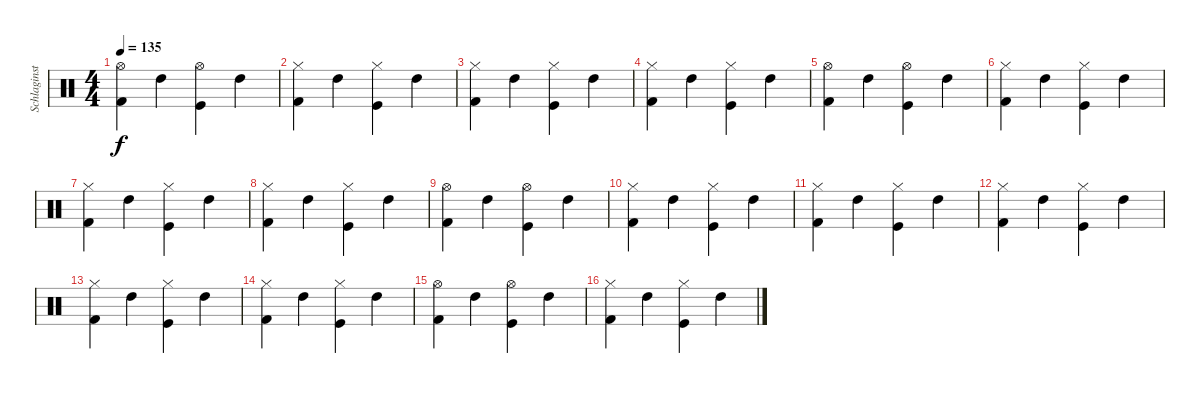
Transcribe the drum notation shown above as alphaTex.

\track ("Schlaginstrumente - Auswahl" "Schlaginst") {instrument percussion}
\staff {score}
\articulation defaults
\ts (4 4)
\tempo 135
\clef neutral
\ks c
("Kick (hit) 2" "Hi-Hat (open)").4{dy f} "High Tom (hit)".4 ("Kick (hit)" "Hi-Hat (open)").4 "High Tom (hit)".4 |
("Kick (hit) 2" "Hi-Hat (closed)").4 "High Tom (hit)".4 ("Kick (hit)" "Hi-Hat (closed)").4 "High Tom (hit)".4 |
("Kick (hit) 2" "Hi-Hat (closed)").4 "High Tom (hit)".4 ("Kick (hit)" "Hi-Hat (closed)").4 "High Tom (hit)".4 |
("Kick (hit) 2" "Hi-Hat (closed)").4 "High Tom (hit)".4 ("Kick (hit)" "Hi-Hat (closed)").4 "High Tom (hit)".4 |
("Kick (hit) 2" "Hi-Hat (open)").4 "High Tom (hit)".4 ("Kick (hit)" "Hi-Hat (open)").4 "High Tom (hit)".4 |
("Kick (hit) 2" "Hi-Hat (closed)").4 "High Tom (hit)".4 ("Kick (hit)" "Hi-Hat (closed)").4 "High Tom (hit)".4 |
("Kick (hit) 2" "Hi-Hat (closed)").4 "High Tom (hit)".4 ("Kick (hit)" "Hi-Hat (closed)").4 "High Tom (hit)".4 |
("Kick (hit) 2" "Hi-Hat (closed)").4 "High Tom (hit)".4 ("Kick (hit)" "Hi-Hat (closed)").4 "High Tom (hit)".4 |
("Kick (hit) 2" "Hi-Hat (open)").4 "High Tom (hit)".4 ("Kick (hit)" "Hi-Hat (open)").4 "High Tom (hit)".4 |
("Kick (hit) 2" "Hi-Hat (closed)").4 "High Tom (hit)".4 ("Kick (hit)" "Hi-Hat (closed)").4 "High Tom (hit)".4 |
("Kick (hit) 2" "Hi-Hat (closed)").4 "High Tom (hit)".4 ("Kick (hit)" "Hi-Hat (closed)").4 "High Tom (hit)".4 |
("Kick (hit) 2" "Hi-Hat (closed)").4 "High Tom (hit)".4 ("Kick (hit)" "Hi-Hat (closed)").4 "High Tom (hit)".4 |
("Kick (hit) 2" "Hi-Hat (closed)").4 "High Tom (hit)".4 ("Kick (hit)" "Hi-Hat (closed)").4 "High Tom (hit)".4 |
("Kick (hit) 2" "Hi-Hat (closed)").4 "High Tom (hit)".4 ("Kick (hit)" "Hi-Hat (closed)").4 "High Tom (hit)".4 |
("Kick (hit) 2" "Hi-Hat (open)").4 "High Tom (hit)".4 ("Kick (hit)" "Hi-Hat (open)").4 "High Tom (hit)".4 |
("Kick (hit) 2" "Hi-Hat (closed)").4 "High Tom (hit)".4 ("Kick (hit)" "Hi-Hat (closed)").4 "High Tom (hit)".4
